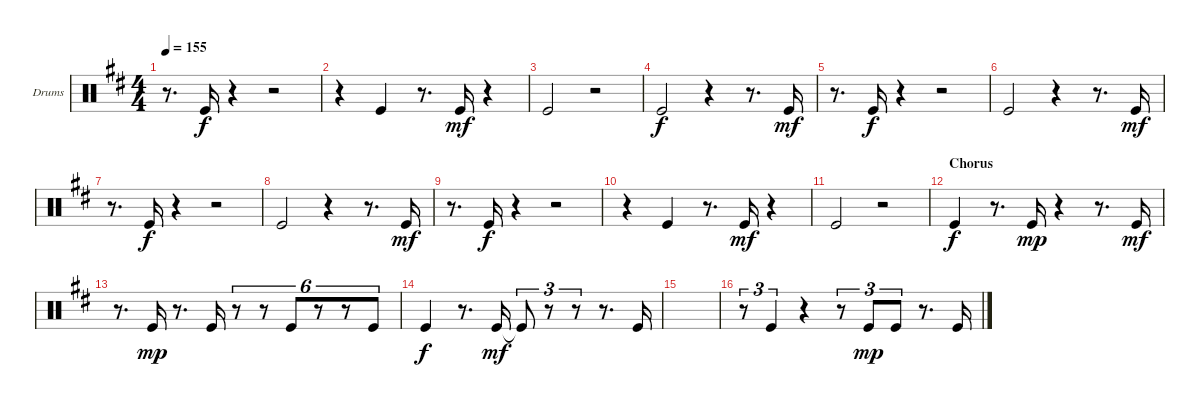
\bracketExtendMode groupsimilarinstruments
\firstSystemTrackNameOrientation horizontal
\otherSystemsTrackNameOrientation horizontal
\track ("Kick" "Drums") {instrument percussion}
\staff {score}
\articulation defaults
\ts (4 4)
\tempo 155
\clef neutral
\ks d
r.8{d dy mf} "Kick (hit)".16{dy f} r.4 r.2 |
r.4 "Kick (hit)".4 r.8{d} "Kick (hit)".16{dy mf} r.4 |
"Kick (hit)".2 r.2 |
"Kick (hit)".2{dy f} r.4 r.8{d} "Kick (hit)".16{dy mf} |
r.8{d} "Kick (hit)".16{dy f} r.4 r.2 |
"Kick (hit)".2 r.4 r.8{d} "Kick (hit)".16{dy mf} |
r.8{d} "Kick (hit)".16{dy f} r.4 r.2 |
"Kick (hit)".2 r.4 r.8{d} "Kick (hit)".16{dy mf} |
r.8{d} "Kick (hit)".16{dy f} r.4 r.2 |
r.4 "Kick (hit)".4 r.8{d} "Kick (hit)".16{dy mf} r.4 |
"Kick (hit)".2 r.2 |
\section ("" "Chorus")
"Kick (hit)".4{dy f} r.8{d} "Kick (hit)".16{dy mp} r.4 r.8{d} "Kick (hit)".16{dy mf} |
r.8{d} "Kick (hit)".16{dy mp} r.8{d} "Kick (hit)".16 r.8{tu (6 4)} r.8{tu (6 4)} "Kick (hit)".8{tu (6 4)} r.8{tu (6 4)} r.8{tu (6 4)} "Kick (hit)".8{tu (6 4)} |
"Kick (hit)".4{dy f} r.8{d} "Kick (hit)".16{dy mf} "Kick (hit)"{t}.8{tu (3 2)} r.8{tu (3 2)} r.8{tu (3 2)} r.8{d} "Kick (hit)".16 |
|
r.8{tu (3 2)} "Kick (hit)".4{tu (3 2)} r.4 r.8{tu (3 2)} "Kick (hit)".8{tu (3 2) dy mp} "Kick (hit)".8{tu (3 2)} r.8{d} "Kick (hit)".16
